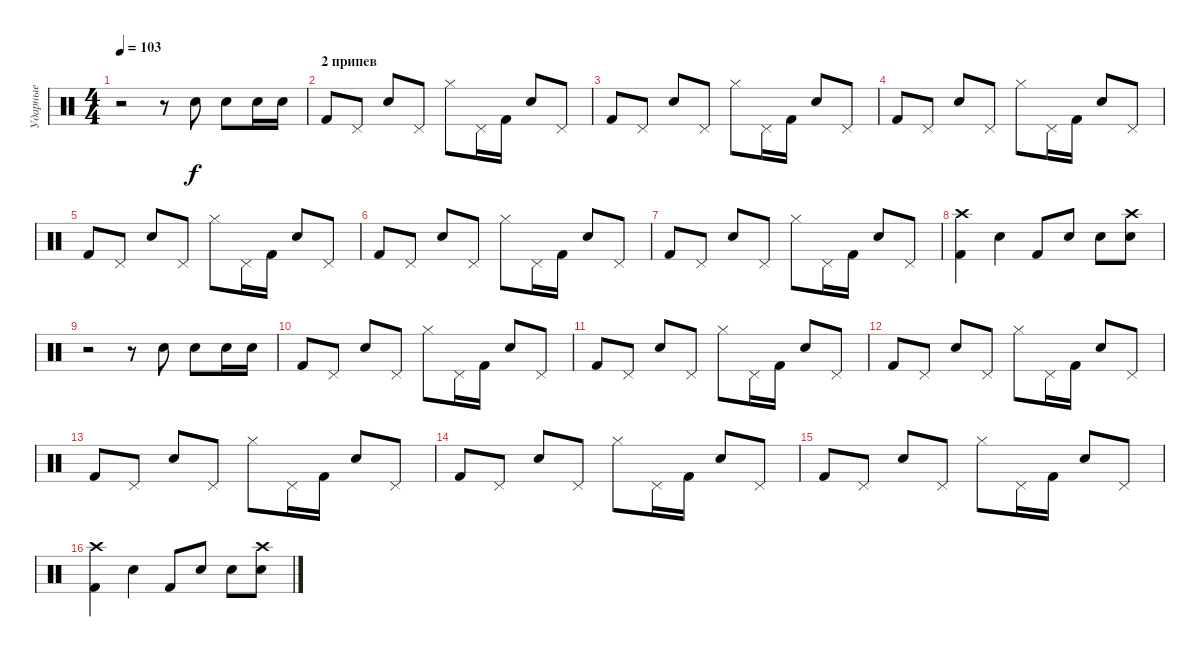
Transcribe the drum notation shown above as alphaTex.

\track ("Ударные" "Ударные") {instrument percussion}
\staff {score}
\articulation defaults
\ts (4 4)
\tempo 103
\clef neutral
\ks c
r.2{dy f} r.8 "Snare (hit) 2".8 "Snare (hit) 2".8 "Snare (hit) 2".16 "Snare (hit) 2".16 |
\section ("" "2 припев")
"Kick (hit) 2".8 "Pedal Hi-Hat (hit)".8 "Snare (hit) 2".8 "Pedal Hi-Hat (hit)".8 "Hi-Hat (closed)".8 "Pedal Hi-Hat (hit)".16 "Kick (hit) 2".16 "Snare (hit) 2".8 "Pedal Hi-Hat (hit)".8 |
"Kick (hit) 2".8 "Pedal Hi-Hat (hit)".8 "Snare (hit) 2".8 "Pedal Hi-Hat (hit)".8 "Hi-Hat (closed)".8 "Pedal Hi-Hat (hit)".16 "Kick (hit) 2".16 "Snare (hit) 2".8 "Pedal Hi-Hat (hit)".8 |
"Kick (hit) 2".8 "Pedal Hi-Hat (hit)".8 "Snare (hit) 2".8 "Pedal Hi-Hat (hit)".8 "Hi-Hat (closed)".8 "Pedal Hi-Hat (hit)".16 "Kick (hit) 2".16 "Snare (hit) 2".8 "Pedal Hi-Hat (hit)".8 |
"Kick (hit) 2".8 "Pedal Hi-Hat (hit)".8 "Snare (hit) 2".8 "Pedal Hi-Hat (hit)".8 "Hi-Hat (closed)".8 "Pedal Hi-Hat (hit)".16 "Kick (hit) 2".16 "Snare (hit) 2".8 "Pedal Hi-Hat (hit)".8 |
"Kick (hit) 2".8 "Pedal Hi-Hat (hit)".8 "Snare (hit) 2".8 "Pedal Hi-Hat (hit)".8 "Hi-Hat (closed)".8 "Pedal Hi-Hat (hit)".16 "Kick (hit) 2".16 "Snare (hit) 2".8 "Pedal Hi-Hat (hit)".8 |
"Kick (hit) 2".8 "Pedal Hi-Hat (hit)".8 "Snare (hit) 2".8 "Pedal Hi-Hat (hit)".8 "Hi-Hat (closed)".8 "Pedal Hi-Hat (hit)".16 "Kick (hit) 2".16 "Snare (hit) 2".8 "Pedal Hi-Hat (hit)".8 |
("Crash high (hit)" "Kick (hit) 2").4 "Snare (hit) 2".4 "Kick (hit) 2".8 "Snare (hit) 2".8 "Snare (hit) 2".8 ("Crash high (hit)" "Snare (hit) 2").8 |
r.2 r.8 "Snare (hit) 2".8 "Snare (hit) 2".8 "Snare (hit) 2".16 "Snare (hit) 2".16 |
"Kick (hit) 2".8 "Pedal Hi-Hat (hit)".8 "Snare (hit) 2".8 "Pedal Hi-Hat (hit)".8 "Hi-Hat (closed)".8 "Pedal Hi-Hat (hit)".16 "Kick (hit) 2".16 "Snare (hit) 2".8 "Pedal Hi-Hat (hit)".8 |
"Kick (hit) 2".8 "Pedal Hi-Hat (hit)".8 "Snare (hit) 2".8 "Pedal Hi-Hat (hit)".8 "Hi-Hat (closed)".8 "Pedal Hi-Hat (hit)".16 "Kick (hit) 2".16 "Snare (hit) 2".8 "Pedal Hi-Hat (hit)".8 |
"Kick (hit) 2".8 "Pedal Hi-Hat (hit)".8 "Snare (hit) 2".8 "Pedal Hi-Hat (hit)".8 "Hi-Hat (closed)".8 "Pedal Hi-Hat (hit)".16 "Kick (hit) 2".16 "Snare (hit) 2".8 "Pedal Hi-Hat (hit)".8 |
"Kick (hit) 2".8 "Pedal Hi-Hat (hit)".8 "Snare (hit) 2".8 "Pedal Hi-Hat (hit)".8 "Hi-Hat (closed)".8 "Pedal Hi-Hat (hit)".16 "Kick (hit) 2".16 "Snare (hit) 2".8 "Pedal Hi-Hat (hit)".8 |
"Kick (hit) 2".8 "Pedal Hi-Hat (hit)".8 "Snare (hit) 2".8 "Pedal Hi-Hat (hit)".8 "Hi-Hat (closed)".8 "Pedal Hi-Hat (hit)".16 "Kick (hit) 2".16 "Snare (hit) 2".8 "Pedal Hi-Hat (hit)".8 |
"Kick (hit) 2".8 "Pedal Hi-Hat (hit)".8 "Snare (hit) 2".8 "Pedal Hi-Hat (hit)".8 "Hi-Hat (closed)".8 "Pedal Hi-Hat (hit)".16 "Kick (hit) 2".16 "Snare (hit) 2".8 "Pedal Hi-Hat (hit)".8 |
("Crash high (hit)" "Kick (hit) 2").4 "Snare (hit) 2".4 "Kick (hit) 2".8 "Snare (hit) 2".8 "Snare (hit) 2".8 ("Crash high (hit)" "Snare (hit) 2").8
